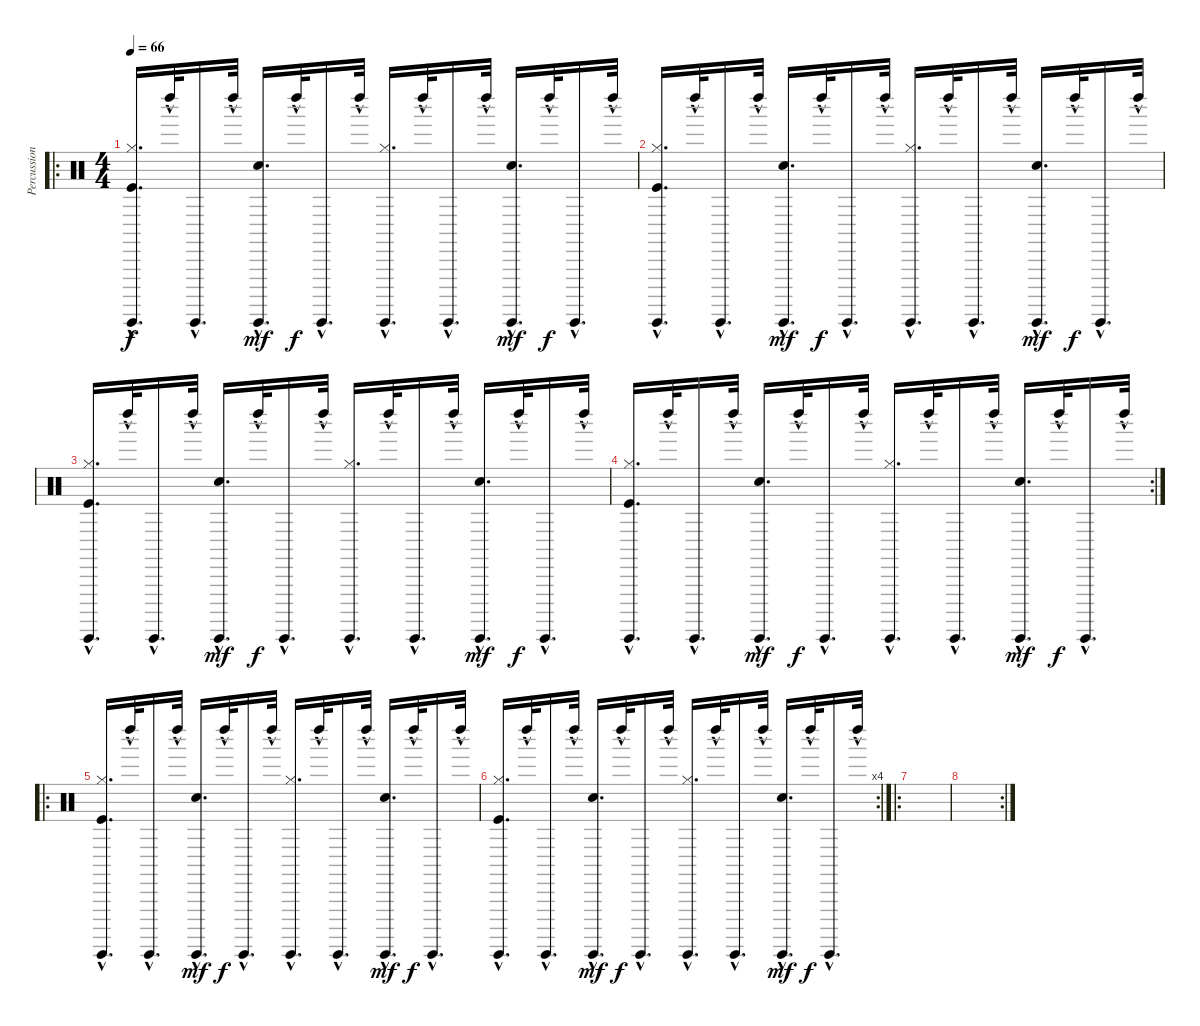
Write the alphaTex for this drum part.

\track ("Percussions" "Percussion") {instrument percussion}
\staff {score}
\articulation defaults
\ro
\ts (4 4)
\tempo 66
\clef neutral
\ks c
("Hi-Hat (closed)" "Kick (hit)" "Guiro (hit)"{hac}).16{d dy f} "Left Maraca (hit)"{hac}.32 "Guiro (hit)"{hac}.16{d} "Left Maraca (hit)"{hac}.32 ("Electric Snare (hit)" "Guiro (hit)"{hac}).16{d dy mf} "Left Maraca (hit)"{hac}.32{dy f} "Guiro (hit)"{hac}.16{d} "Left Maraca (hit)"{hac}.32 ("Hi-Hat (closed)" "Guiro (hit)"{hac}).16{d} "Left Maraca (hit)"{hac}.32 "Guiro (hit)"{hac}.16{d} "Left Maraca (hit)"{hac}.32 ("Electric Snare (hit)" "Guiro (hit)"{hac}).16{d dy mf} "Left Maraca (hit)"{hac}.32{dy f} "Guiro (hit)"{hac}.16{d} "Left Maraca (hit)"{hac}.32 |
("Hi-Hat (closed)" "Kick (hit)" "Guiro (hit)"{hac}).16{d} "Left Maraca (hit)"{hac}.32 "Guiro (hit)"{hac}.16{d} "Left Maraca (hit)"{hac}.32 ("Electric Snare (hit)" "Guiro (hit)"{hac}).16{d dy mf} "Left Maraca (hit)"{hac}.32{dy f} "Guiro (hit)"{hac}.16{d} "Left Maraca (hit)"{hac}.32 ("Hi-Hat (closed)" "Guiro (hit)"{hac}).16{d} "Left Maraca (hit)"{hac}.32 "Guiro (hit)"{hac}.16{d} "Left Maraca (hit)"{hac}.32 ("Electric Snare (hit)" "Guiro (hit)"{hac}).16{d dy mf} "Left Maraca (hit)"{hac}.32{dy f} "Guiro (hit)"{hac}.16{d} "Left Maraca (hit)"{hac}.32 |
("Hi-Hat (closed)" "Kick (hit)" "Guiro (hit)"{hac}).16{d} "Left Maraca (hit)"{hac}.32 "Guiro (hit)"{hac}.16{d} "Left Maraca (hit)"{hac}.32 ("Electric Snare (hit)" "Guiro (hit)"{hac}).16{d dy mf} "Left Maraca (hit)"{hac}.32{dy f} "Guiro (hit)"{hac}.16{d} "Left Maraca (hit)"{hac}.32 ("Hi-Hat (closed)" "Guiro (hit)"{hac}).16{d} "Left Maraca (hit)"{hac}.32 "Guiro (hit)"{hac}.16{d} "Left Maraca (hit)"{hac}.32 ("Electric Snare (hit)" "Guiro (hit)"{hac}).16{d dy mf} "Left Maraca (hit)"{hac}.32{dy f} "Guiro (hit)"{hac}.16{d} "Left Maraca (hit)"{hac}.32 |
\rc 2
("Hi-Hat (closed)" "Kick (hit)" "Guiro (hit)"{hac}).16{d} "Left Maraca (hit)"{hac}.32 "Guiro (hit)"{hac}.16{d} "Left Maraca (hit)"{hac}.32 ("Electric Snare (hit)" "Guiro (hit)"{hac}).16{d dy mf} "Left Maraca (hit)"{hac}.32{dy f} "Guiro (hit)"{hac}.16{d} "Left Maraca (hit)"{hac}.32 ("Hi-Hat (closed)" "Guiro (hit)"{hac}).16{d} "Left Maraca (hit)"{hac}.32 "Guiro (hit)"{hac}.16{d} "Left Maraca (hit)"{hac}.32 ("Electric Snare (hit)" "Guiro (hit)"{hac}).16{d dy mf} "Left Maraca (hit)"{hac}.32{dy f} "Guiro (hit)"{hac}.16{d} "Left Maraca (hit)"{hac}.32 |
\ro
("Hi-Hat (closed)" "Kick (hit)" "Guiro (hit)"{hac}).16{d} "Left Maraca (hit)"{hac}.32 "Guiro (hit)"{hac}.16{d} "Left Maraca (hit)"{hac}.32 ("Electric Snare (hit)" "Guiro (hit)"{hac}).16{d dy mf} "Left Maraca (hit)"{hac}.32{dy f} "Guiro (hit)"{hac}.16{d} "Left Maraca (hit)"{hac}.32 ("Hi-Hat (closed)" "Guiro (hit)"{hac}).16{d} "Left Maraca (hit)"{hac}.32 "Guiro (hit)"{hac}.16{d} "Left Maraca (hit)"{hac}.32 ("Electric Snare (hit)" "Guiro (hit)"{hac}).16{d dy mf} "Left Maraca (hit)"{hac}.32{dy f} "Guiro (hit)"{hac}.16{d} "Left Maraca (hit)"{hac}.32 |
\rc 4
("Hi-Hat (closed)" "Kick (hit)" "Guiro (hit)"{hac}).16{d} "Left Maraca (hit)"{hac}.32 "Guiro (hit)"{hac}.16{d} "Left Maraca (hit)"{hac}.32 ("Electric Snare (hit)" "Guiro (hit)"{hac}).16{d dy mf} "Left Maraca (hit)"{hac}.32{dy f} "Guiro (hit)"{hac}.16{d} "Left Maraca (hit)"{hac}.32 ("Hi-Hat (closed)" "Guiro (hit)"{hac}).16{d} "Left Maraca (hit)"{hac}.32 "Guiro (hit)"{hac}.16{d} "Left Maraca (hit)"{hac}.32 ("Electric Snare (hit)" "Guiro (hit)"{hac}).16{d dy mf} "Left Maraca (hit)"{hac}.32{dy f} "Guiro (hit)"{hac}.16{d} "Left Maraca (hit)"{hac}.32 |
\ro
|
\rc 2
